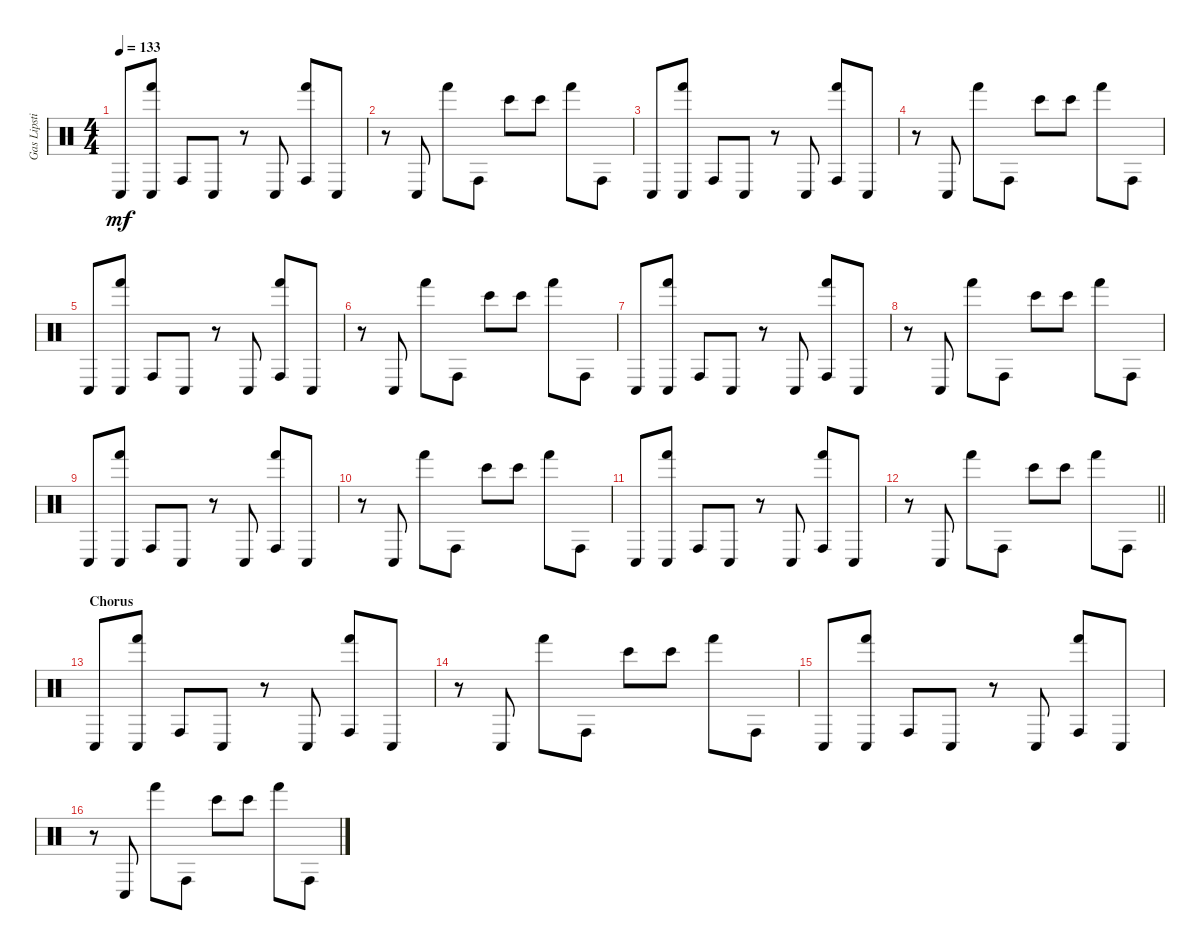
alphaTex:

\track ("Gas Lipstick (Drums)" "Gas Lipsti") {instrument percussion}
\staff {score}
\articulation defaults
\ts (4 4)
\tempo 133
\clef neutral
\ks c "Conga low (hit)".8{dy mf}
("Hand (hit)" "Conga low (hit)").8 "Conga high (hit)".8 "Conga low (hit)".8 r.8 "Conga low (hit)".8 ("Hand (hit)" "Conga high (hit)").8 "Conga low (hit)".8 |
r.8 "Conga low (hit)".8 "Hand (hit)".8 "Conga high (hit)".8 "Bongo High (hit)".8 "Bongo High (hit)".8 "Hand (hit)".8 "Conga high (hit)".8 |
"Conga low (hit)".8 ("Hand (hit)" "Conga low (hit)").8 "Conga high (hit)".8 "Conga low (hit)".8 r.8 "Conga low (hit)".8 ("Hand (hit)" "Conga high (hit)").8 "Conga low (hit)".8 |
r.8 "Conga low (hit)".8 "Hand (hit)".8 "Conga high (hit)".8 "Bongo High (hit)".8 "Bongo High (hit)".8 "Hand (hit)".8 "Conga high (hit)".8 |
"Conga low (hit)".8 ("Hand (hit)" "Conga low (hit)").8 "Conga high (hit)".8 "Conga low (hit)".8 r.8 "Conga low (hit)".8 ("Hand (hit)" "Conga high (hit)").8 "Conga low (hit)".8 |
r.8 "Conga low (hit)".8 "Hand (hit)".8 "Conga high (hit)".8 "Bongo High (hit)".8 "Bongo High (hit)".8 "Hand (hit)".8 "Conga high (hit)".8 |
"Conga low (hit)".8 ("Hand (hit)" "Conga low (hit)").8 "Conga high (hit)".8 "Conga low (hit)".8 r.8 "Conga low (hit)".8 ("Hand (hit)" "Conga high (hit)").8 "Conga low (hit)".8 |
r.8 "Conga low (hit)".8 "Hand (hit)".8 "Conga high (hit)".8 "Bongo High (hit)".8 "Bongo High (hit)".8 "Hand (hit)".8 "Conga high (hit)".8 |
"Conga low (hit)".8 ("Hand (hit)" "Conga low (hit)").8 "Conga high (hit)".8 "Conga low (hit)".8 r.8 "Conga low (hit)".8 ("Hand (hit)" "Conga high (hit)").8 "Conga low (hit)".8 |
r.8 "Conga low (hit)".8 "Hand (hit)".8 "Conga high (hit)".8 "Bongo High (hit)".8 "Bongo High (hit)".8 "Hand (hit)".8 "Conga high (hit)".8 |
"Conga low (hit)".8 ("Hand (hit)" "Conga low (hit)").8 "Conga high (hit)".8 "Conga low (hit)".8 r.8 "Conga low (hit)".8 ("Hand (hit)" "Conga high (hit)").8 "Conga low (hit)".8 |
\barLineRight lightlight
r.8 "Conga low (hit)".8 "Hand (hit)".8 "Conga high (hit)".8 "Bongo High (hit)".8 "Bongo High (hit)".8 "Hand (hit)".8 "Conga high (hit)".8 |
\section ("" "Chorus")
"Conga low (hit)".8 ("Hand (hit)" "Conga low (hit)").8 "Conga high (hit)".8 "Conga low (hit)".8 r.8 "Conga low (hit)".8 ("Hand (hit)" "Conga high (hit)").8 "Conga low (hit)".8 |
r.8 "Conga low (hit)".8 "Hand (hit)".8 "Conga high (hit)".8 "Bongo High (hit)".8 "Bongo High (hit)".8 "Hand (hit)".8 "Conga high (hit)".8 |
"Conga low (hit)".8 ("Hand (hit)" "Conga low (hit)").8 "Conga high (hit)".8 "Conga low (hit)".8 r.8 "Conga low (hit)".8 ("Hand (hit)" "Conga high (hit)").8 "Conga low (hit)".8 |
r.8 "Conga low (hit)".8 "Hand (hit)".8 "Conga high (hit)".8 "Bongo High (hit)".8 "Bongo High (hit)".8 "Hand (hit)".8 "Conga high (hit)".8
